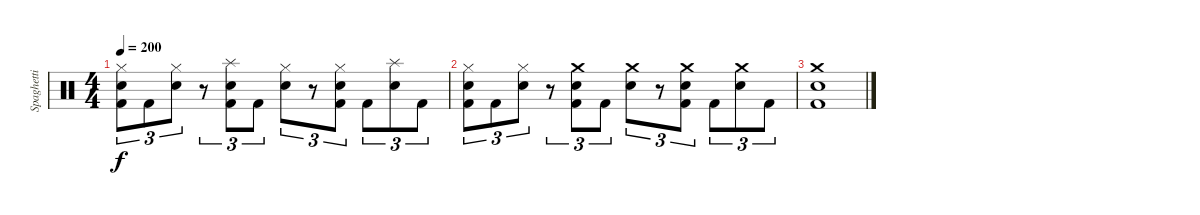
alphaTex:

\track ("Spaghetti" "Spaghetti") {instrument percussion}
\staff {score}
\articulation defaults
\ts (4 4)
\tempo 200
\clef neutral
\ks c
("Hi-Hat (closed)" "Snare (hit) 2" "Kick (hit) 2").8{tu (3 2) dy f} "Kick (hit) 2".8{tu (3 2)} ("Hi-Hat (closed)" "Snare (hit) 2").8{tu (3 2)} r.8{tu (3 2)} ("Splash (hit)" "Snare (hit) 2" "Kick (hit) 2").8{tu (3 2)} "Kick (hit) 2".8{tu (3 2)} ("Hi-Hat (closed)" "Snare (hit) 2").8{tu (3 2)} r.8{tu (3 2)} ("Hi-Hat (closed)" "Snare (hit) 2" "Kick (hit) 2").8{tu (3 2)} "Kick (hit) 2".8{tu (3 2)} ("Splash (hit)" "Snare (hit) 2").8{tu (3 2)} "Kick (hit) 2".8{tu (3 2)} |
("Hi-Hat (closed)" "Snare (hit) 2" "Kick (hit) 2").8{tu (3 2)} "Kick (hit) 2".8{tu (3 2)} ("Hi-Hat (closed)" "Snare (hit) 2").8{tu (3 2)} r.8{tu (3 2)} ("Crash medium (hit)" "Snare (hit) 2" "Kick (hit) 2").8{tu (3 2)} "Kick (hit) 2".8{tu (3 2)} ("Crash medium (hit)" "Snare (hit) 2").8{tu (3 2)} r.8{tu (3 2)} ("Crash medium (hit)" "Snare (hit) 2" "Kick (hit) 2").8{tu (3 2)} "Kick (hit) 2".8{tu (3 2)} ("Crash medium (hit)" "Snare (hit) 2").8{tu (3 2)} "Kick (hit) 2".8{tu (3 2)} |
("Crash medium (hit)" "Snare (hit) 2" "Kick (hit) 2").1
